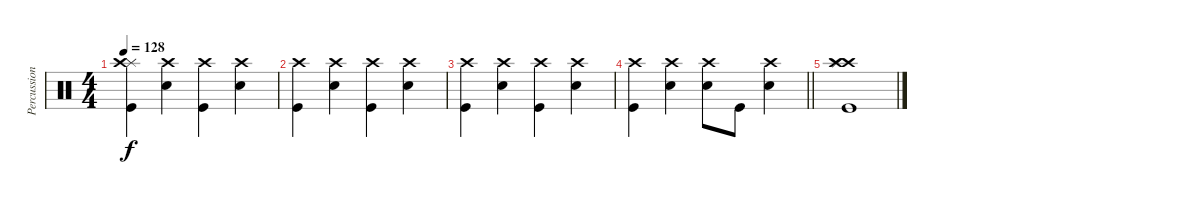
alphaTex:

\track ("Percussion" "Percussion") {instrument percussion}
\staff {score}
\articulation defaults
\ts (4 4)
\tempo 128
\clef neutral
\ks c
("Splash (hit)" "Crash high (hit)" "Kick (hit)").4{dy f} ("Crash high (hit)" "Electric Snare (hit)").4 ("Crash high (hit)" "Kick (hit)").4 ("Crash high (hit)" "Electric Snare (hit)").4 |
("Crash high (hit)" "Kick (hit)").4 ("Crash high (hit)" "Electric Snare (hit)").4 ("Crash high (hit)" "Kick (hit)").4 ("Crash high (hit)" "Electric Snare (hit)").4 |
("Crash high (hit)" "Kick (hit)").4 ("Crash high (hit)" "Electric Snare (hit)").4 ("Crash high (hit)" "Kick (hit)").4 ("Crash high (hit)" "Electric Snare (hit)").4 |
\barLineRight lightlight
("Crash high (hit)" "Kick (hit)").4 ("Crash high (hit)" "Electric Snare (hit)").4 ("Crash high (hit)" "Electric Snare (hit)").8 "Kick (hit)".8 ("Crash high (hit)" "Electric Snare (hit)").4 |
("Crash high (hit)" "Crash high (hit)" "Splash (hit)" "Kick (hit)").1
